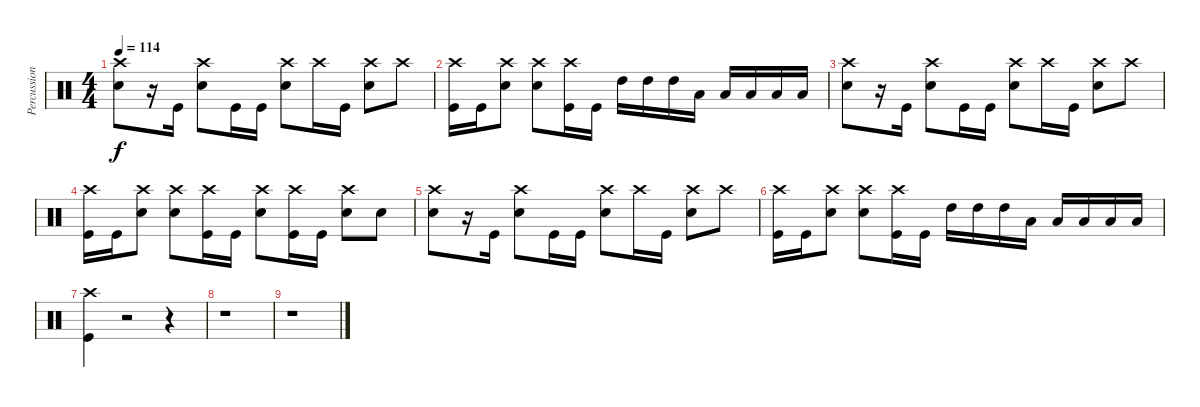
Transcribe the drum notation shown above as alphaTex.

\track ("Percussion" "Percussion") {instrument percussion}
\staff {score}
\articulation defaults
\ts (4 4)
\tempo 114
\clef neutral
\ks c
("Electric Snare (hit)" "Crash high (hit)").8{dy f} r.16 "Kick (hit)".16 ("Electric Snare (hit)" "Crash high (hit)").8 "Kick (hit)".16 "Kick (hit)".16 ("Electric Snare (hit)" "Crash high (hit)").8 "Crash high (hit)".16 "Kick (hit)".16 ("Electric Snare (hit)" "Crash high (hit)").8 "Crash high (hit)".8 |
("Kick (hit)" "Crash high (hit)").16 "Kick (hit)".16 ("Electric Snare (hit)" "Crash high (hit)").8 ("Electric Snare (hit)" "Crash high (hit)").8 ("Kick (hit)" "Crash high (hit)").16 "Kick (hit)".16 "High Tom (hit)".16 "High Tom (hit)".16 "High Tom (hit)".16 "Low Tom (hit)".16 "Low Tom (hit)".16 "Low Tom (hit)".16 "Low Tom (hit)".16 "Low Tom (hit)".16 |
("Electric Snare (hit)" "Crash high (hit)").8 r.16 "Kick (hit)".16 ("Electric Snare (hit)" "Crash high (hit)").8 "Kick (hit)".16 "Kick (hit)".16 ("Electric Snare (hit)" "Crash high (hit)").8 "Crash high (hit)".16 "Kick (hit)".16 ("Electric Snare (hit)" "Crash high (hit)").8 "Crash high (hit)".8 |
("Kick (hit)" "Crash high (hit)").16 "Kick (hit)".16 ("Electric Snare (hit)" "Crash high (hit)").8 ("Electric Snare (hit)" "Crash high (hit)").8 ("Kick (hit)" "Crash high (hit)").16 "Kick (hit)".16 ("Electric Snare (hit)" "Crash high (hit)").8 ("Kick (hit)" "Crash high (hit)").16 "Kick (hit)".16 ("Electric Snare (hit)" "Crash high (hit)").8 "Electric Snare (hit)".8 |
("Electric Snare (hit)" "Crash high (hit)").8 r.16 "Kick (hit)".16 ("Electric Snare (hit)" "Crash high (hit)").8 "Kick (hit)".16 "Kick (hit)".16 ("Electric Snare (hit)" "Crash high (hit)").8 "Crash high (hit)".16 "Kick (hit)".16 ("Electric Snare (hit)" "Crash high (hit)").8 "Crash high (hit)".8 |
("Kick (hit)" "Crash high (hit)").16 "Kick (hit)".16 ("Electric Snare (hit)" "Crash high (hit)").8 ("Electric Snare (hit)" "Crash high (hit)").8 ("Kick (hit)" "Crash high (hit)").16 "Kick (hit)".16 "High Tom (hit)".16 "High Tom (hit)".16 "High Tom (hit)".16 "Low Tom (hit)".16 "Low Tom (hit)".16 "Low Tom (hit)".16 "Low Tom (hit)".16 "Low Tom (hit)".16 |
("Kick (hit)" "Crash high (hit)").4 r.2 r.4 |
r.1 |
r.1
